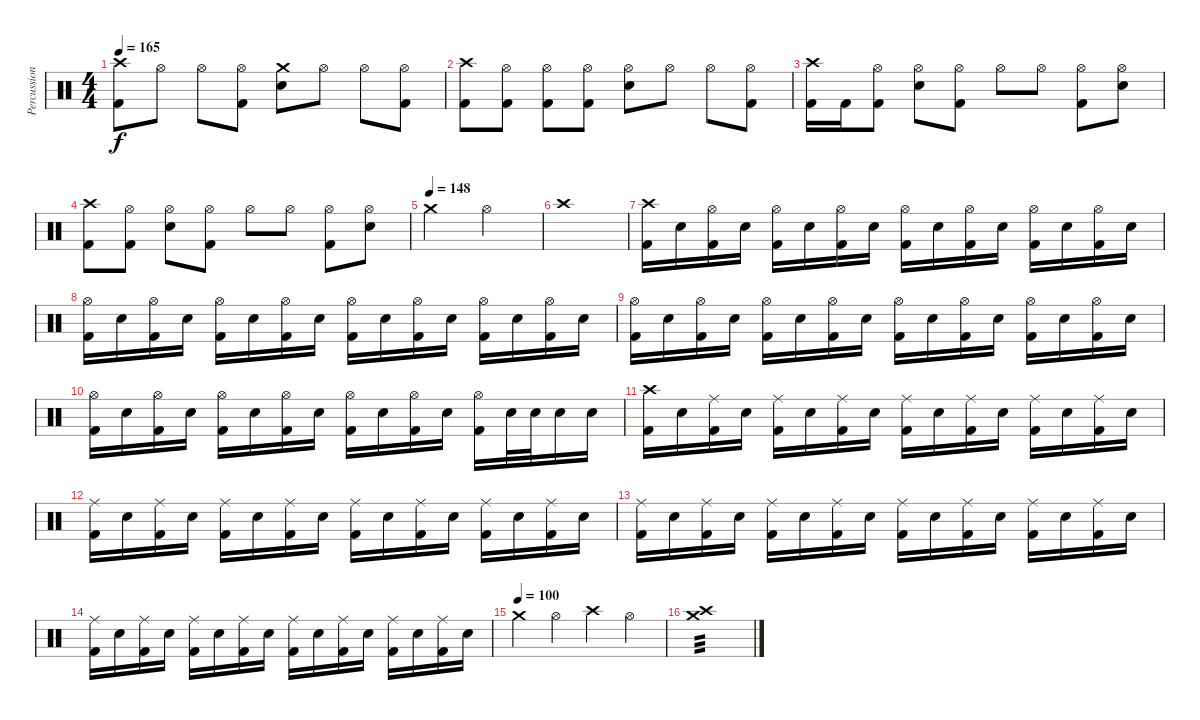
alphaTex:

\track ("Percussion" "Percussion") {instrument percussion}
\staff {score}
\articulation defaults
\ts (4 4)
\tempo 165
\clef neutral
\ks c
("Crash high (hit)" "Kick (hit) 2").8{dy f} "Hi-Hat (open)".8 "Hi-Hat (open)".8 ("Hi-Hat (open)" "Kick (hit) 2").8 ("Crash medium (hit)" "Electric Snare (hit)").8 "Hi-Hat (open)".8 "Hi-Hat (open)".8 ("Hi-Hat (open)" "Kick (hit) 2").8 |
("Crash high (hit)" "Kick (hit) 2").8 ("Hi-Hat (open)" "Kick (hit) 2").8 ("Hi-Hat (open)" "Kick (hit) 2").8 ("Hi-Hat (open)" "Kick (hit) 2").8 ("Hi-Hat (open)" "Electric Snare (hit)").8 "Hi-Hat (open)".8 "Hi-Hat (open)".8 ("Hi-Hat (open)" "Kick (hit) 2").8 |
("Crash high (hit)" "Kick (hit) 2").16 "Kick (hit) 2".16 ("Hi-Hat (open)" "Kick (hit) 2").8 ("Hi-Hat (open)" "Electric Snare (hit)").8 ("Hi-Hat (open)" "Kick (hit) 2").8 "Hi-Hat (open)".8 "Hi-Hat (open)".8 ("Hi-Hat (open)" "Kick (hit) 2").8 ("Hi-Hat (open)" "Electric Snare (hit)").8 |
("Crash high (hit)" "Kick (hit) 2").8 ("Hi-Hat (open)" "Kick (hit) 2").8 ("Hi-Hat (open)" "Electric Snare (hit)").8 ("Hi-Hat (open)" "Kick (hit) 2").8 "Hi-Hat (open)".8 "Hi-Hat (open)".8 ("Hi-Hat (open)" "Kick (hit) 2").8 ("Hi-Hat (open)" "Electric Snare (hit)").8 |
\tempo (148)
"Crash medium (hit)".2 "Hi-Hat (open)".2 |
"Crash high (hit)".1 |
("Crash high (hit)" "Kick (hit) 2").16 "Electric Snare (hit)".16 ("Hi-Hat (open)" "Kick (hit) 2").16 "Electric Snare (hit)".16 ("Hi-Hat (open)" "Kick (hit) 2").16 "Electric Snare (hit)".16 ("Hi-Hat (open)" "Kick (hit) 2").16 "Electric Snare (hit)".16 ("Hi-Hat (open)" "Kick (hit) 2").16 "Electric Snare (hit)".16 ("Hi-Hat (open)" "Kick (hit) 2").16 "Electric Snare (hit)".16 ("Hi-Hat (open)" "Kick (hit) 2").16 "Electric Snare (hit)".16 ("Hi-Hat (open)" "Kick (hit) 2").16 "Electric Snare (hit)".16 |
("Hi-Hat (open)" "Kick (hit) 2").16 "Electric Snare (hit)".16 ("Hi-Hat (open)" "Kick (hit) 2").16 "Electric Snare (hit)".16 ("Hi-Hat (open)" "Kick (hit) 2").16 "Electric Snare (hit)".16 ("Hi-Hat (open)" "Kick (hit) 2").16 "Electric Snare (hit)".16 ("Hi-Hat (open)" "Kick (hit) 2").16 "Electric Snare (hit)".16 ("Hi-Hat (open)" "Kick (hit) 2").16 "Electric Snare (hit)".16 ("Hi-Hat (open)" "Kick (hit) 2").16 "Electric Snare (hit)".16 ("Hi-Hat (open)" "Kick (hit) 2").16 "Electric Snare (hit)".16 |
("Hi-Hat (open)" "Kick (hit) 2").16 "Electric Snare (hit)".16 ("Hi-Hat (open)" "Kick (hit) 2").16 "Electric Snare (hit)".16 ("Hi-Hat (open)" "Kick (hit) 2").16 "Electric Snare (hit)".16 ("Hi-Hat (open)" "Kick (hit) 2").16 "Electric Snare (hit)".16 ("Hi-Hat (open)" "Kick (hit) 2").16 "Electric Snare (hit)".16 ("Hi-Hat (open)" "Kick (hit) 2").16 "Electric Snare (hit)".16 ("Hi-Hat (open)" "Kick (hit) 2").16 "Electric Snare (hit)".16 ("Hi-Hat (open)" "Kick (hit) 2").16 "Electric Snare (hit)".16 |
("Hi-Hat (open)" "Kick (hit) 2").16 "Electric Snare (hit)".16 ("Hi-Hat (open)" "Kick (hit) 2").16 "Electric Snare (hit)".16 ("Hi-Hat (open)" "Kick (hit) 2").16 "Electric Snare (hit)".16 ("Hi-Hat (open)" "Kick (hit) 2").16 "Electric Snare (hit)".16 ("Hi-Hat (open)" "Kick (hit) 2").16 "Electric Snare (hit)".16 ("Hi-Hat (open)" "Kick (hit) 2").16 "Electric Snare (hit)".16 ("Hi-Hat (open)" "Kick (hit) 2").16 "Electric Snare (hit)".32 "Electric Snare (hit)".32 "Electric Snare (hit)".16 "Electric Snare (hit)".16 |
("Crash high (hit)" "Kick (hit) 2").16 "Electric Snare (hit)".16 ("Ride (middle)" "Kick (hit) 2").16 "Electric Snare (hit)".16 ("Ride (middle)" "Kick (hit) 2").16 "Electric Snare (hit)".16 ("Ride (middle)" "Kick (hit) 2").16 "Electric Snare (hit)".16 ("Ride (middle)" "Kick (hit) 2").16 "Electric Snare (hit)".16 ("Ride (middle)" "Kick (hit) 2").16 "Electric Snare (hit)".16 ("Ride (middle)" "Kick (hit) 2").16 "Electric Snare (hit)".16 ("Ride (middle)" "Kick (hit) 2").16 "Electric Snare (hit)".16 |
("Ride (middle)" "Kick (hit) 2").16 "Electric Snare (hit)".16 ("Ride (middle)" "Kick (hit) 2").16 "Electric Snare (hit)".16 ("Ride (middle)" "Kick (hit) 2").16 "Electric Snare (hit)".16 ("Ride (middle)" "Kick (hit) 2").16 "Electric Snare (hit)".16 ("Ride (middle)" "Kick (hit) 2").16 "Electric Snare (hit)".16 ("Ride (middle)" "Kick (hit) 2").16 "Electric Snare (hit)".16 ("Ride (middle)" "Kick (hit) 2").16 "Electric Snare (hit)".16 ("Ride (middle)" "Kick (hit) 2").16 "Electric Snare (hit)".16 |
("Ride (middle)" "Kick (hit) 2").16 "Electric Snare (hit)".16 ("Ride (middle)" "Kick (hit) 2").16 "Electric Snare (hit)".16 ("Ride (middle)" "Kick (hit) 2").16 "Electric Snare (hit)".16 ("Ride (middle)" "Kick (hit) 2").16 "Electric Snare (hit)".16 ("Ride (middle)" "Kick (hit) 2").16 "Electric Snare (hit)".16 ("Ride (middle)" "Kick (hit) 2").16 "Electric Snare (hit)".16 ("Ride (middle)" "Kick (hit) 2").16 "Electric Snare (hit)".16 ("Ride (middle)" "Kick (hit) 2").16 "Electric Snare (hit)".16 |
("Ride (middle)" "Kick (hit) 2").16 "Electric Snare (hit)".16 ("Ride (middle)" "Kick (hit) 2").16 "Electric Snare (hit)".16 ("Ride (middle)" "Kick (hit) 2").16 "Electric Snare (hit)".16 ("Ride (middle)" "Kick (hit) 2").16 "Electric Snare (hit)".16 ("Ride (middle)" "Kick (hit) 2").16 "Electric Snare (hit)".16 ("Ride (middle)" "Kick (hit) 2").16 "Electric Snare (hit)".16 ("Ride (middle)" "Kick (hit) 2").16 "Electric Snare (hit)".16 ("Ride (middle)" "Kick (hit) 2").16 "Electric Snare (hit)".16 |
\tempo (100)
"Crash medium (hit)".4 "Hi-Hat (open)".4 "Crash high (hit)".4 "Hi-Hat (open)".4 |
("Crash medium (hit)" "Crash high (hit)").1{tp 3}
